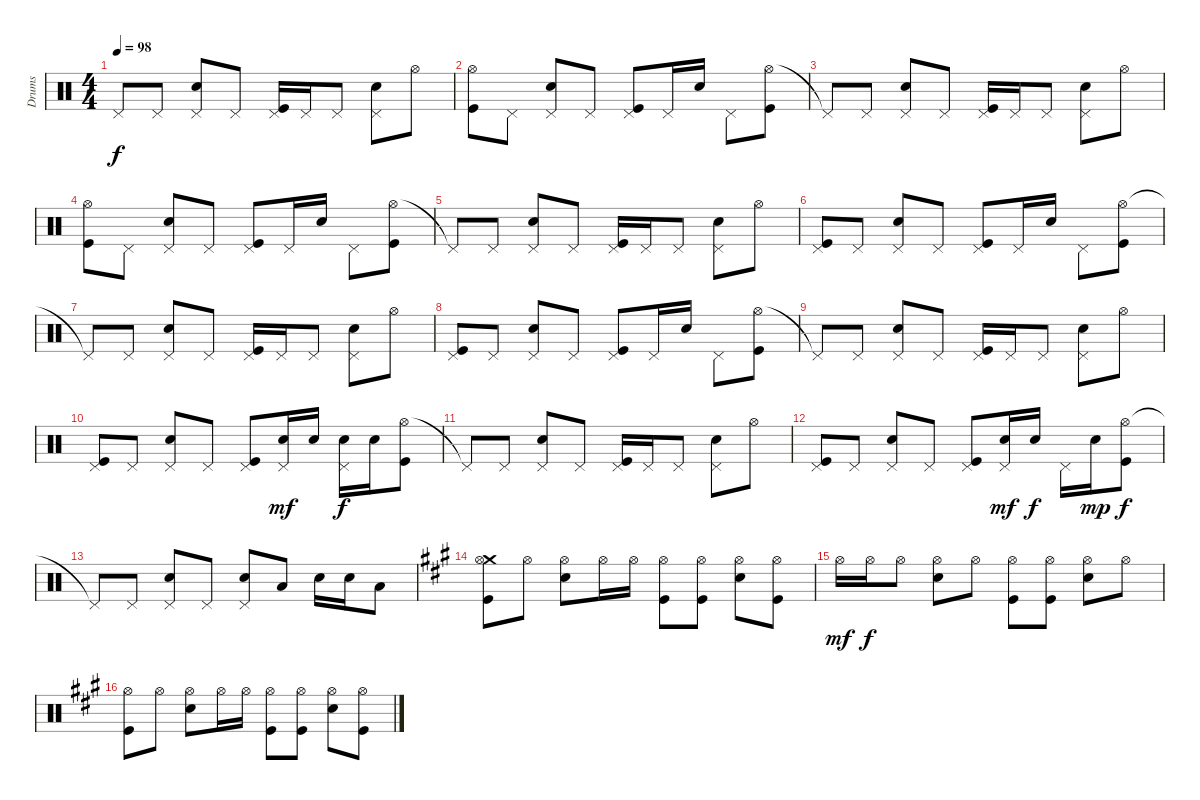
\track ("Drums" "Drums") {instrument percussion}
\staff {score}
\articulation defaults
\ts (4 4)
\tempo 98
\clef neutral
\ks aminor "Pedal Hi-Hat (hit)"{t}.8{dy f} "Pedal Hi-Hat (hit)".8
("Pedal Hi-Hat (hit)" "Electric Snare (hit)").8 "Pedal Hi-Hat (hit)".8 ("Pedal Hi-Hat (hit)" "Kick (hit)").16 "Pedal Hi-Hat (hit)".16 "Pedal Hi-Hat (hit)".8 ("Pedal Hi-Hat (hit)" "Electric Snare (hit)").8 "Hi-Hat (open)".8 |
("Hi-Hat (open)" "Kick (hit)").8 "Pedal Hi-Hat (hit)".8 ("Pedal Hi-Hat (hit)" "Electric Snare (hit)").8 "Pedal Hi-Hat (hit)".8 ("Pedal Hi-Hat (hit)" "Kick (hit)").8 "Pedal Hi-Hat (hit)".16 "Electric Snare (hit)".16 "Pedal Hi-Hat (hit)".8 ("Hi-Hat (open)" "Kick (hit)").8 |
"Pedal Hi-Hat (hit)"{t}.8 "Pedal Hi-Hat (hit)".8 ("Pedal Hi-Hat (hit)" "Electric Snare (hit)").8 "Pedal Hi-Hat (hit)".8 ("Pedal Hi-Hat (hit)" "Kick (hit)").16 "Pedal Hi-Hat (hit)".16 "Pedal Hi-Hat (hit)".8 ("Pedal Hi-Hat (hit)" "Electric Snare (hit)").8 "Hi-Hat (open)".8 |
("Hi-Hat (open)" "Kick (hit)").8 "Pedal Hi-Hat (hit)".8 ("Pedal Hi-Hat (hit)" "Electric Snare (hit)").8 "Pedal Hi-Hat (hit)".8 ("Pedal Hi-Hat (hit)" "Kick (hit)").8 "Pedal Hi-Hat (hit)".16 "Electric Snare (hit)".16 "Pedal Hi-Hat (hit)".8 ("Hi-Hat (open)" "Kick (hit)").8 |
"Pedal Hi-Hat (hit)"{t}.8 "Pedal Hi-Hat (hit)".8 ("Pedal Hi-Hat (hit)" "Electric Snare (hit)").8 "Pedal Hi-Hat (hit)".8 ("Pedal Hi-Hat (hit)" "Kick (hit)").16 "Pedal Hi-Hat (hit)".16 "Pedal Hi-Hat (hit)".8 ("Pedal Hi-Hat (hit)" "Electric Snare (hit)").8 "Hi-Hat (open)".8 |
("Pedal Hi-Hat (hit)" "Kick (hit)").8 "Pedal Hi-Hat (hit)".8 ("Pedal Hi-Hat (hit)" "Electric Snare (hit)").8 "Pedal Hi-Hat (hit)".8 ("Pedal Hi-Hat (hit)" "Kick (hit)").8 "Pedal Hi-Hat (hit)".16 "Electric Snare (hit)".16 "Pedal Hi-Hat (hit)".8 ("Hi-Hat (open)" "Kick (hit)").8 |
"Pedal Hi-Hat (hit)"{t}.8 "Pedal Hi-Hat (hit)".8 ("Pedal Hi-Hat (hit)" "Electric Snare (hit)").8 "Pedal Hi-Hat (hit)".8 ("Pedal Hi-Hat (hit)" "Kick (hit)").16 "Pedal Hi-Hat (hit)".16 "Pedal Hi-Hat (hit)".8 ("Pedal Hi-Hat (hit)" "Electric Snare (hit)").8 "Hi-Hat (open)".8 |
("Pedal Hi-Hat (hit)" "Kick (hit)").8 "Pedal Hi-Hat (hit)".8 ("Pedal Hi-Hat (hit)" "Electric Snare (hit)").8 "Pedal Hi-Hat (hit)".8 ("Pedal Hi-Hat (hit)" "Kick (hit)").8 "Pedal Hi-Hat (hit)".16 "Electric Snare (hit)".16 "Pedal Hi-Hat (hit)".8 ("Hi-Hat (open)" "Kick (hit)").8 |
"Pedal Hi-Hat (hit)"{t}.8 "Pedal Hi-Hat (hit)".8 ("Pedal Hi-Hat (hit)" "Electric Snare (hit)").8 "Pedal Hi-Hat (hit)".8 ("Pedal Hi-Hat (hit)" "Kick (hit)").16 "Pedal Hi-Hat (hit)".16 "Pedal Hi-Hat (hit)".8 ("Pedal Hi-Hat (hit)" "Electric Snare (hit)").8 "Hi-Hat (open)".8 |
("Pedal Hi-Hat (hit)" "Kick (hit)").8 "Pedal Hi-Hat (hit)".8 ("Pedal Hi-Hat (hit)" "Electric Snare (hit)").8 "Pedal Hi-Hat (hit)".8 ("Pedal Hi-Hat (hit)" "Kick (hit)").8 ("Pedal Hi-Hat (hit)" "Electric Snare (hit)").16{dy mf} "Electric Snare (hit)".16 ("Pedal Hi-Hat (hit)" "Electric Snare (hit)").16{dy f} "Electric Snare (hit)".16 ("Hi-Hat (open)" "Kick (hit)").8 |
"Pedal Hi-Hat (hit)"{t}.8 "Pedal Hi-Hat (hit)".8 ("Pedal Hi-Hat (hit)" "Electric Snare (hit)").8 "Pedal Hi-Hat (hit)".8 ("Pedal Hi-Hat (hit)" "Kick (hit)").16 "Pedal Hi-Hat (hit)".16 "Pedal Hi-Hat (hit)".8 ("Pedal Hi-Hat (hit)" "Electric Snare (hit)").8 "Hi-Hat (open)".8 |
("Pedal Hi-Hat (hit)" "Kick (hit)").8 "Pedal Hi-Hat (hit)".8 ("Pedal Hi-Hat (hit)" "Electric Snare (hit)").8 "Pedal Hi-Hat (hit)".8 ("Pedal Hi-Hat (hit)" "Kick (hit)").8 ("Pedal Hi-Hat (hit)" "Electric Snare (hit)").16{dy mf} "Electric Snare (hit)".16{dy f} "Pedal Hi-Hat (hit)".16 "Electric Snare (hit)".16{dy mp} ("Hi-Hat (open)" "Kick (hit)").8{dy f} |
"Pedal Hi-Hat (hit)"{t}.8 "Pedal Hi-Hat (hit)".8 ("Pedal Hi-Hat (hit)" "Electric Snare (hit)").8 "Pedal Hi-Hat (hit)".8 ("Pedal Hi-Hat (hit)" "Electric Snare (hit)").8 "Low Tom (hit)".8 "Electric Snare (hit)".16 "Electric Snare (hit)".16 "Low Tom (hit)".8 |
\ks f#minor
("Crash medium (hit)" "Hi-Hat (open)" "Kick (hit)").8 "Hi-Hat (open)".8 ("Hi-Hat (open)" "Electric Snare (hit)").8 "Hi-Hat (open)".16 "Hi-Hat (open)".16 ("Hi-Hat (open)" "Kick (hit)").8 ("Hi-Hat (open)" "Kick (hit)").8 ("Hi-Hat (open)" "Electric Snare (hit)").8 ("Hi-Hat (open)" "Kick (hit)").8 |
"Hi-Hat (open)".16{dy mf} "Hi-Hat (open)".16{dy f} "Hi-Hat (open)".8 ("Hi-Hat (open)" "Electric Snare (hit)").8 "Hi-Hat (open)".8 ("Hi-Hat (open)" "Kick (hit)").8 ("Hi-Hat (open)" "Kick (hit)").8 ("Hi-Hat (open)" "Electric Snare (hit)").8 "Hi-Hat (open)".8 |
("Hi-Hat (open)" "Kick (hit)").8 "Hi-Hat (open)".8 ("Hi-Hat (open)" "Electric Snare (hit)").8 "Hi-Hat (open)".16 "Hi-Hat (open)".16 ("Hi-Hat (open)" "Kick (hit)").8 ("Hi-Hat (open)" "Kick (hit)").8 ("Hi-Hat (open)" "Electric Snare (hit)").8 ("Hi-Hat (open)" "Kick (hit)").8
